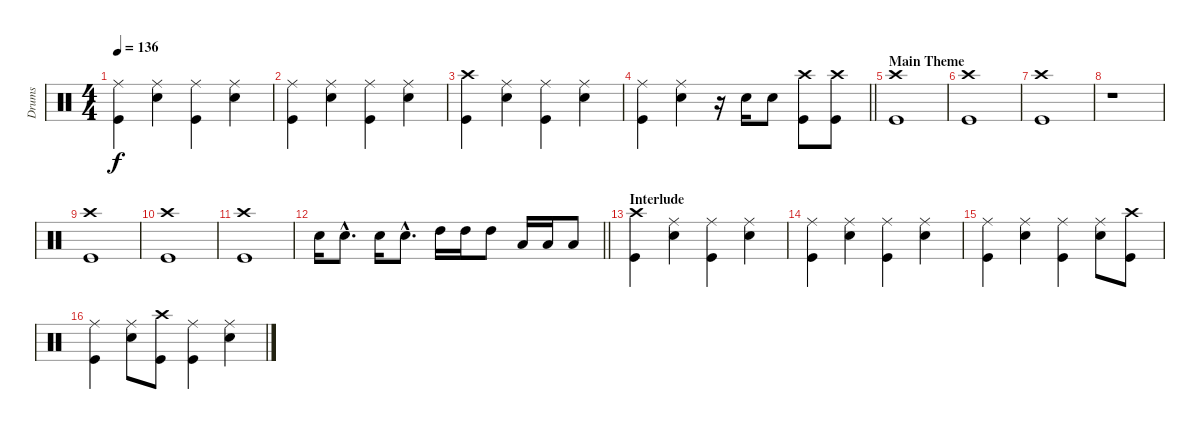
\track ("Drums" "Drums") {instrument percussion}
\staff {score}
\articulation defaults
\ts (4 4)
\tempo 136
\clef neutral
\ks c
("Ride (middle)" "Kick (hit)").4{dy f} ("Ride (middle)" "Snare (hit) 2").4 ("Ride (middle)" "Kick (hit)").4 ("Ride (middle)" "Snare (hit) 2").4 |
("Ride (middle)" "Kick (hit)").4 ("Ride (middle)" "Snare (hit) 2").4 ("Ride (middle)" "Kick (hit)").4 ("Ride (middle)" "Snare (hit) 2").4 |
("Crash high (hit)" "Kick (hit)").4 ("Ride (middle)" "Snare (hit) 2").4 ("Ride (middle)" "Kick (hit)").4 ("Ride (middle)" "Snare (hit) 2").4 |
\barLineRight lightlight
("Ride (middle)" "Kick (hit)").4 ("Ride (middle)" "Snare (hit) 2").4 r.16 "Snare (hit) 2".16 "Snare (hit) 2".8 ("Crash high (hit)" "Kick (hit)").8 ("Crash high (hit)" "Kick (hit)").8 |
\section ("" "Main Theme")
("Crash high (hit)" "Kick (hit)").1 |
("Crash high (hit)" "Kick (hit)").1 |
("Crash high (hit)" "Kick (hit)").1 |
r.1 |
("Crash high (hit)" "Kick (hit)").1 |
("Crash high (hit)" "Kick (hit)").1 |
("Crash high (hit)" "Kick (hit)").1 |
\barLineRight lightlight "Snare (hit) 2".16 "Snare (hit) 2"{hac}.8{d} "Snare (hit) 2".16 "Snare (hit) 2"{hac}.8{d} "High Tom (hit)".16 "High Tom (hit)".16 "High Tom (hit)".8 "Low Tom (hit)".16 "Low Tom (hit)".16 "Low Tom (hit)".8
|
\section ("" "Interlude")
("Crash high (hit)" "Kick (hit)").4 ("Ride (middle)" "Snare (hit) 2").4 ("Ride (middle)" "Kick (hit)").4 ("Ride (middle)" "Snare (hit) 2").4 |
("Ride (middle)" "Kick (hit)").4 ("Ride (middle)" "Snare (hit) 2").4 ("Ride (middle)" "Kick (hit)").4 ("Ride (middle)" "Snare (hit) 2").4 |
("Ride (middle)" "Kick (hit)").4 ("Ride (middle)" "Snare (hit) 2").4 ("Ride (middle)" "Kick (hit)").4 ("Ride (middle)" "Snare (hit) 2").8 ("Crash high (hit)" "Kick (hit)").8 |
("Ride (middle)" "Kick (hit)").4 ("Ride (middle)" "Snare (hit) 2").8 ("Crash high (hit)" "Kick (hit)").8 ("Ride (middle)" "Kick (hit)").4 ("Ride (middle)" "Snare (hit) 2").4
